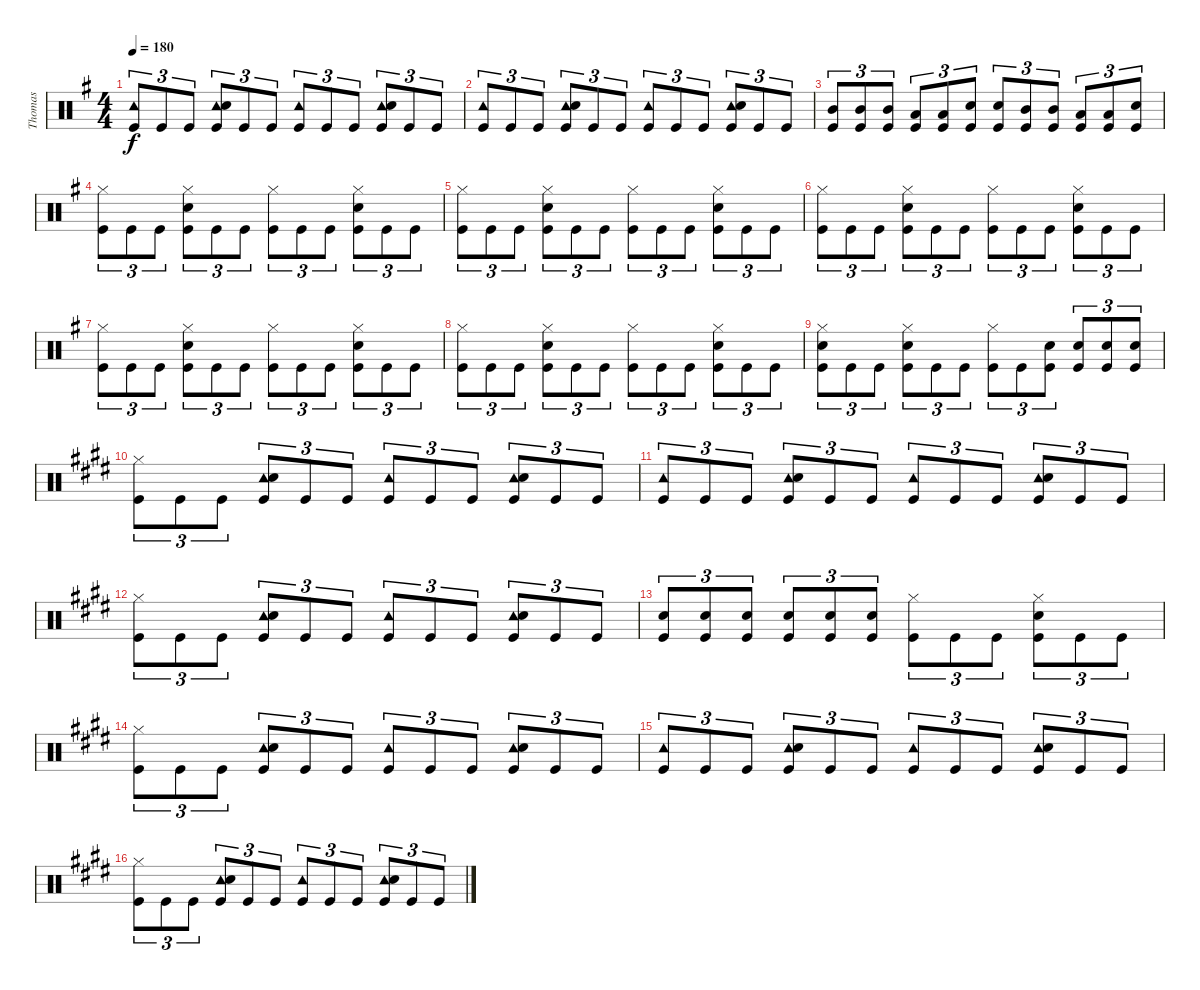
\track ("Thomas" "Thomas") {instrument percussion}
\staff {score}
\articulation defaults
\ts (4 4)
\tempo 180
\clef neutral
\ks g
("Tambourine (hit)" "Kick (hit)").8{tu (3 2) dy f} "Kick (hit)".8{tu (3 2)} "Kick (hit)".8{tu (3 2)} ("Tambourine (hit)" "Snare (hit) 2" "Kick (hit)").8{tu (3 2)} "Kick (hit)".8{tu (3 2)} "Kick (hit)".8{tu (3 2)} ("Tambourine (hit)" "Kick (hit)").8{tu (3 2)} "Kick (hit)".8{tu (3 2)} "Kick (hit)".8{tu (3 2)} ("Tambourine (hit)" "Snare (hit) 2" "Kick (hit)").8{tu (3 2)} "Kick (hit)".8{tu (3 2)} "Kick (hit)".8{tu (3 2)} |
("Tambourine (hit)" "Kick (hit)").8{tu (3 2)} "Kick (hit)".8{tu (3 2)} "Kick (hit)".8{tu (3 2)} ("Tambourine (hit)" "Snare (hit) 2" "Kick (hit)").8{tu (3 2)} "Kick (hit)".8{tu (3 2)} "Kick (hit)".8{tu (3 2)} ("Tambourine (hit)" "Kick (hit)").8{tu (3 2)} "Kick (hit)".8{tu (3 2)} "Kick (hit)".8{tu (3 2)} ("Tambourine (hit)" "Snare (hit) 2" "Kick (hit)").8{tu (3 2)} "Kick (hit)".8{tu (3 2)} "Kick (hit)".8{tu (3 2)} |
("Mid Tom (hit)" "Kick (hit)").8{tu (3 2)} ("Mid Tom (hit)" "Kick (hit)").8{tu (3 2)} ("Mid Tom (hit)" "Kick (hit)").8{tu (3 2)} ("Low Tom (hit)" "Kick (hit)").8{tu (3 2)} ("Low Tom (hit)" "Kick (hit)").8{tu (3 2)} ("Snare (hit) 2" "Kick (hit)").8{tu (3 2)} ("Snare (hit) 2" "Kick (hit)").8{tu (3 2)} ("Mid Tom (hit)" "Kick (hit)").8{tu (3 2)} ("Mid Tom (hit)" "Kick (hit)").8{tu (3 2)} ("Low Tom (hit)" "Kick (hit)").8{tu (3 2)} ("Low Tom (hit)" "Kick (hit)").8{tu (3 2)} ("Snare (hit) 2" "Kick (hit)").8{tu (3 2)} |
("Hi-Hat (closed)" "Kick (hit)").8{tu (3 2)} "Kick (hit)".8{tu (3 2)} "Kick (hit)".8{tu (3 2)} ("Hi-Hat (closed)" "Snare (hit) 2" "Kick (hit)").8{tu (3 2)} "Kick (hit)".8{tu (3 2)} "Kick (hit)".8{tu (3 2)} ("Hi-Hat (closed)" "Kick (hit)").8{tu (3 2)} "Kick (hit)".8{tu (3 2)} "Kick (hit)".8{tu (3 2)} ("Hi-Hat (closed)" "Snare (hit) 2" "Kick (hit)").8{tu (3 2)} "Kick (hit)".8{tu (3 2)} "Kick (hit)".8{tu (3 2)} |
("Hi-Hat (closed)" "Kick (hit)").8{tu (3 2)} "Kick (hit)".8{tu (3 2)} "Kick (hit)".8{tu (3 2)} ("Hi-Hat (closed)" "Snare (hit) 2" "Kick (hit)").8{tu (3 2)} "Kick (hit)".8{tu (3 2)} "Kick (hit)".8{tu (3 2)} ("Hi-Hat (closed)" "Kick (hit)").8{tu (3 2)} "Kick (hit)".8{tu (3 2)} "Kick (hit)".8{tu (3 2)} ("Hi-Hat (closed)" "Snare (hit) 2" "Kick (hit)").8{tu (3 2)} "Kick (hit)".8{tu (3 2)} "Kick (hit)".8{tu (3 2)} |
("Hi-Hat (closed)" "Kick (hit)").8{tu (3 2)} "Kick (hit)".8{tu (3 2)} "Kick (hit)".8{tu (3 2)} ("Hi-Hat (closed)" "Snare (hit) 2" "Kick (hit)").8{tu (3 2)} "Kick (hit)".8{tu (3 2)} "Kick (hit)".8{tu (3 2)} ("Hi-Hat (closed)" "Kick (hit)").8{tu (3 2)} "Kick (hit)".8{tu (3 2)} "Kick (hit)".8{tu (3 2)} ("Hi-Hat (closed)" "Snare (hit) 2" "Kick (hit)").8{tu (3 2)} "Kick (hit)".8{tu (3 2)} "Kick (hit)".8{tu (3 2)} |
("Hi-Hat (closed)" "Kick (hit)").8{tu (3 2)} "Kick (hit)".8{tu (3 2)} "Kick (hit)".8{tu (3 2)} ("Hi-Hat (closed)" "Snare (hit) 2" "Kick (hit)").8{tu (3 2)} "Kick (hit)".8{tu (3 2)} "Kick (hit)".8{tu (3 2)} ("Hi-Hat (closed)" "Kick (hit)").8{tu (3 2)} "Kick (hit)".8{tu (3 2)} "Kick (hit)".8{tu (3 2)} ("Hi-Hat (closed)" "Snare (hit) 2" "Kick (hit)").8{tu (3 2)} "Kick (hit)".8{tu (3 2)} "Kick (hit)".8{tu (3 2)} |
("Hi-Hat (closed)" "Kick (hit)").8{tu (3 2)} "Kick (hit)".8{tu (3 2)} "Kick (hit)".8{tu (3 2)} ("Hi-Hat (closed)" "Snare (hit) 2" "Kick (hit)").8{tu (3 2)} "Kick (hit)".8{tu (3 2)} "Kick (hit)".8{tu (3 2)} ("Hi-Hat (closed)" "Kick (hit)").8{tu (3 2)} "Kick (hit)".8{tu (3 2)} "Kick (hit)".8{tu (3 2)} ("Hi-Hat (closed)" "Snare (hit) 2" "Kick (hit)").8{tu (3 2)} "Kick (hit)".8{tu (3 2)} "Kick (hit)".8{tu (3 2)} |
("Hi-Hat (closed)" "Snare (hit) 2" "Kick (hit)").8{tu (3 2)} "Kick (hit)".8{tu (3 2)} "Kick (hit)".8{tu (3 2)} ("Hi-Hat (closed)" "Snare (hit) 2" "Kick (hit)").8{tu (3 2)} "Kick (hit)".8{tu (3 2)} "Kick (hit)".8{tu (3 2)} ("Hi-Hat (closed)" "Kick (hit)").8{tu (3 2)} "Kick (hit)".8{tu (3 2)} ("Snare (hit) 2" "Kick (hit)").8{tu (3 2)} ("Snare (hit) 2" "Kick (hit)").8{tu (3 2)} ("Snare (hit) 2" "Kick (hit)").8{tu (3 2)} ("Snare (hit) 2" "Kick (hit)").8{tu (3 2)} |
\ks e
("Hi-Hat (closed)" "Kick (hit)").8{tu (3 2)} "Kick (hit)".8{tu (3 2)} "Kick (hit)".8{tu (3 2)} ("Tambourine (hit)" "Snare (hit) 2" "Kick (hit)").8{tu (3 2)} "Kick (hit)".8{tu (3 2)} "Kick (hit)".8{tu (3 2)} ("Tambourine (hit)" "Kick (hit)").8{tu (3 2)} "Kick (hit)".8{tu (3 2)} "Kick (hit)".8{tu (3 2)} ("Tambourine (hit)" "Snare (hit) 2" "Kick (hit)").8{tu (3 2)} "Kick (hit)".8{tu (3 2)} "Kick (hit)".8{tu (3 2)} |
("Tambourine (hit)" "Kick (hit)").8{tu (3 2)} "Kick (hit)".8{tu (3 2)} "Kick (hit)".8{tu (3 2)} ("Tambourine (hit)" "Snare (hit) 2" "Kick (hit)").8{tu (3 2)} "Kick (hit)".8{tu (3 2)} "Kick (hit)".8{tu (3 2)} ("Tambourine (hit)" "Kick (hit)").8{tu (3 2)} "Kick (hit)".8{tu (3 2)} "Kick (hit)".8{tu (3 2)} ("Tambourine (hit)" "Snare (hit) 2" "Kick (hit)").8{tu (3 2)} "Kick (hit)".8{tu (3 2)} "Kick (hit)".8{tu (3 2)} |
("Hi-Hat (closed)" "Kick (hit)").8{tu (3 2)} "Kick (hit)".8{tu (3 2)} "Kick (hit)".8{tu (3 2)} ("Tambourine (hit)" "Snare (hit) 2" "Kick (hit)").8{tu (3 2)} "Kick (hit)".8{tu (3 2)} "Kick (hit)".8{tu (3 2)} ("Tambourine (hit)" "Kick (hit)").8{tu (3 2)} "Kick (hit)".8{tu (3 2)} "Kick (hit)".8{tu (3 2)} ("Tambourine (hit)" "Snare (hit) 2" "Kick (hit)").8{tu (3 2)} "Kick (hit)".8{tu (3 2)} "Kick (hit)".8{tu (3 2)} |
("Snare (hit) 2" "Kick (hit)").8{tu (3 2)} ("Snare (hit) 2" "Kick (hit)").8{tu (3 2)} ("Snare (hit) 2" "Kick (hit)").8{tu (3 2)} ("Snare (hit) 2" "Kick (hit)").8{tu (3 2)} ("Snare (hit) 2" "Kick (hit)").8{tu (3 2)} ("Snare (hit) 2" "Kick (hit)").8{tu (3 2)} ("Hi-Hat (closed)" "Kick (hit)").8{tu (3 2)} "Kick (hit)".8{tu (3 2)} "Kick (hit)".8{tu (3 2)} ("Hi-Hat (closed)" "Snare (hit) 2" "Kick (hit)").8{tu (3 2)} "Kick (hit)".8{tu (3 2)} "Kick (hit)".8{tu (3 2)} |
("Hi-Hat (closed)" "Kick (hit)").8{tu (3 2)} "Kick (hit)".8{tu (3 2)} "Kick (hit)".8{tu (3 2)} ("Tambourine (hit)" "Snare (hit) 2" "Kick (hit)").8{tu (3 2)} "Kick (hit)".8{tu (3 2)} "Kick (hit)".8{tu (3 2)} ("Tambourine (hit)" "Kick (hit)").8{tu (3 2)} "Kick (hit)".8{tu (3 2)} "Kick (hit)".8{tu (3 2)} ("Tambourine (hit)" "Snare (hit) 2" "Kick (hit)").8{tu (3 2)} "Kick (hit)".8{tu (3 2)} "Kick (hit)".8{tu (3 2)} |
("Tambourine (hit)" "Kick (hit)").8{tu (3 2)} "Kick (hit)".8{tu (3 2)} "Kick (hit)".8{tu (3 2)} ("Tambourine (hit)" "Snare (hit) 2" "Kick (hit)").8{tu (3 2)} "Kick (hit)".8{tu (3 2)} "Kick (hit)".8{tu (3 2)} ("Tambourine (hit)" "Kick (hit)").8{tu (3 2)} "Kick (hit)".8{tu (3 2)} "Kick (hit)".8{tu (3 2)} ("Tambourine (hit)" "Snare (hit) 2" "Kick (hit)").8{tu (3 2)} "Kick (hit)".8{tu (3 2)} "Kick (hit)".8{tu (3 2)} |
("Hi-Hat (closed)" "Kick (hit)").8{tu (3 2)} "Kick (hit)".8{tu (3 2)} "Kick (hit)".8{tu (3 2)} ("Tambourine (hit)" "Snare (hit) 2" "Kick (hit)").8{tu (3 2)} "Kick (hit)".8{tu (3 2)} "Kick (hit)".8{tu (3 2)} ("Tambourine (hit)" "Kick (hit)").8{tu (3 2)} "Kick (hit)".8{tu (3 2)} "Kick (hit)".8{tu (3 2)} ("Tambourine (hit)" "Snare (hit) 2" "Kick (hit)").8{tu (3 2)} "Kick (hit)".8{tu (3 2)} "Kick (hit)".8{tu (3 2)}
